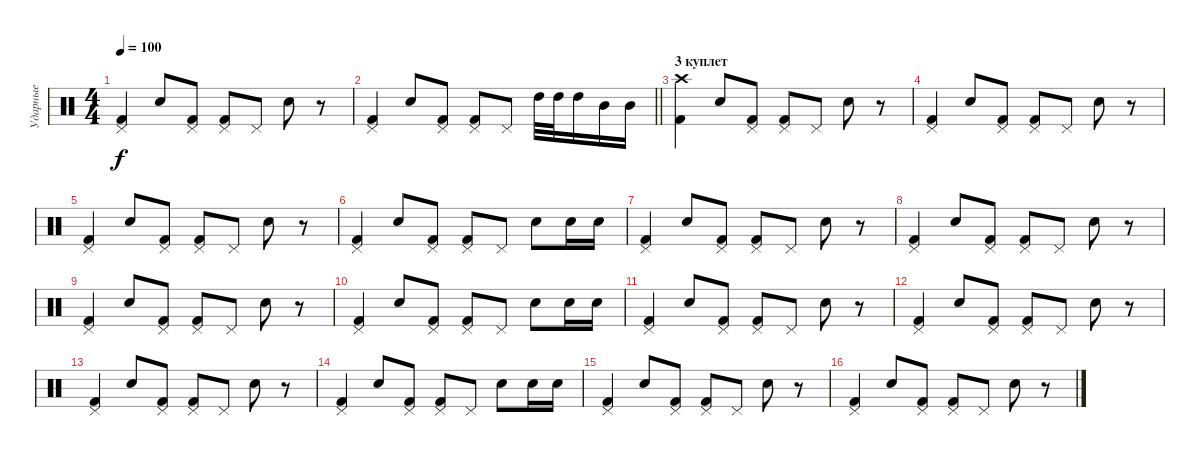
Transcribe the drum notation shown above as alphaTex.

\track ("Ударные" "Ударные") {instrument percussion}
\staff {score}
\articulation defaults
\ts (4 4)
\tempo 100
\clef neutral
\ks c
("Pedal Hi-Hat (hit)" "Kick (hit) 2").4{dy f} "Snare (hit) 2".8 ("Pedal Hi-Hat (hit)" "Kick (hit) 2").8 ("Pedal Hi-Hat (hit)" "Kick (hit) 2").8 "Pedal Hi-Hat (hit)".8 "Snare (hit) 2".8 r.8 |
\barLineRight lightlight
("Pedal Hi-Hat (hit)" "Kick (hit) 2").4 "Snare (hit) 2".8 ("Pedal Hi-Hat (hit)" "Kick (hit) 2").8 ("Pedal Hi-Hat (hit)" "Kick (hit) 2").8 "Pedal Hi-Hat (hit)".8 "High Tom (hit)".32 "High Tom (hit)".32 "High Tom (hit)".16 "Mid Tom (hit)".16 "Mid Tom (hit)".16 |
\section ("" "3 куплет")
("Crash high (hit)" "Kick (hit) 2").4 "Snare (hit) 2".8 ("Pedal Hi-Hat (hit)" "Kick (hit) 2").8 ("Pedal Hi-Hat (hit)" "Kick (hit) 2").8 "Pedal Hi-Hat (hit)".8 "Snare (hit) 2".8 r.8 |
("Pedal Hi-Hat (hit)" "Kick (hit) 2").4 "Snare (hit) 2".8 ("Pedal Hi-Hat (hit)" "Kick (hit) 2").8 ("Pedal Hi-Hat (hit)" "Kick (hit) 2").8 "Pedal Hi-Hat (hit)".8 "Snare (hit) 2".8 r.8 |
("Pedal Hi-Hat (hit)" "Kick (hit) 2").4 "Snare (hit) 2".8 ("Pedal Hi-Hat (hit)" "Kick (hit) 2").8 ("Pedal Hi-Hat (hit)" "Kick (hit) 2").8 "Pedal Hi-Hat (hit)".8 "Snare (hit) 2".8 r.8 |
("Pedal Hi-Hat (hit)" "Kick (hit) 2").4 "Snare (hit) 2".8 ("Pedal Hi-Hat (hit)" "Kick (hit) 2").8 ("Pedal Hi-Hat (hit)" "Kick (hit) 2").8 "Pedal Hi-Hat (hit)".8 "Snare (hit) 2".8 "Snare (hit) 2".16 "Snare (hit) 2".16 |
("Pedal Hi-Hat (hit)" "Kick (hit) 2").4 "Snare (hit) 2".8 ("Pedal Hi-Hat (hit)" "Kick (hit) 2").8 ("Pedal Hi-Hat (hit)" "Kick (hit) 2").8 "Pedal Hi-Hat (hit)".8 "Snare (hit) 2".8 r.8 |
("Pedal Hi-Hat (hit)" "Kick (hit) 2").4 "Snare (hit) 2".8 ("Pedal Hi-Hat (hit)" "Kick (hit) 2").8 ("Pedal Hi-Hat (hit)" "Kick (hit) 2").8 "Pedal Hi-Hat (hit)".8 "Snare (hit) 2".8 r.8 |
("Pedal Hi-Hat (hit)" "Kick (hit) 2").4 "Snare (hit) 2".8 ("Pedal Hi-Hat (hit)" "Kick (hit) 2").8 ("Pedal Hi-Hat (hit)" "Kick (hit) 2").8 "Pedal Hi-Hat (hit)".8 "Snare (hit) 2".8 r.8 |
("Pedal Hi-Hat (hit)" "Kick (hit) 2").4 "Snare (hit) 2".8 ("Pedal Hi-Hat (hit)" "Kick (hit) 2").8 ("Pedal Hi-Hat (hit)" "Kick (hit) 2").8 "Pedal Hi-Hat (hit)".8 "Snare (hit) 2".8 "Snare (hit) 2".16 "Snare (hit) 2".16 |
("Pedal Hi-Hat (hit)" "Kick (hit) 2").4 "Snare (hit) 2".8 ("Pedal Hi-Hat (hit)" "Kick (hit) 2").8 ("Pedal Hi-Hat (hit)" "Kick (hit) 2").8 "Pedal Hi-Hat (hit)".8 "Snare (hit) 2".8 r.8 |
("Pedal Hi-Hat (hit)" "Kick (hit) 2").4 "Snare (hit) 2".8 ("Pedal Hi-Hat (hit)" "Kick (hit) 2").8 ("Pedal Hi-Hat (hit)" "Kick (hit) 2").8 "Pedal Hi-Hat (hit)".8 "Snare (hit) 2".8 r.8 |
("Pedal Hi-Hat (hit)" "Kick (hit) 2").4 "Snare (hit) 2".8 ("Pedal Hi-Hat (hit)" "Kick (hit) 2").8 ("Pedal Hi-Hat (hit)" "Kick (hit) 2").8 "Pedal Hi-Hat (hit)".8 "Snare (hit) 2".8 r.8 |
("Pedal Hi-Hat (hit)" "Kick (hit) 2").4 "Snare (hit) 2".8 ("Pedal Hi-Hat (hit)" "Kick (hit) 2").8 ("Pedal Hi-Hat (hit)" "Kick (hit) 2").8 "Pedal Hi-Hat (hit)".8 "Snare (hit) 2".8 "Snare (hit) 2".16 "Snare (hit) 2".16 |
("Pedal Hi-Hat (hit)" "Kick (hit) 2").4 "Snare (hit) 2".8 ("Pedal Hi-Hat (hit)" "Kick (hit) 2").8 ("Pedal Hi-Hat (hit)" "Kick (hit) 2").8 "Pedal Hi-Hat (hit)".8 "Snare (hit) 2".8 r.8 |
("Pedal Hi-Hat (hit)" "Kick (hit) 2").4 "Snare (hit) 2".8 ("Pedal Hi-Hat (hit)" "Kick (hit) 2").8 ("Pedal Hi-Hat (hit)" "Kick (hit) 2").8 "Pedal Hi-Hat (hit)".8 "Snare (hit) 2".8 r.8
